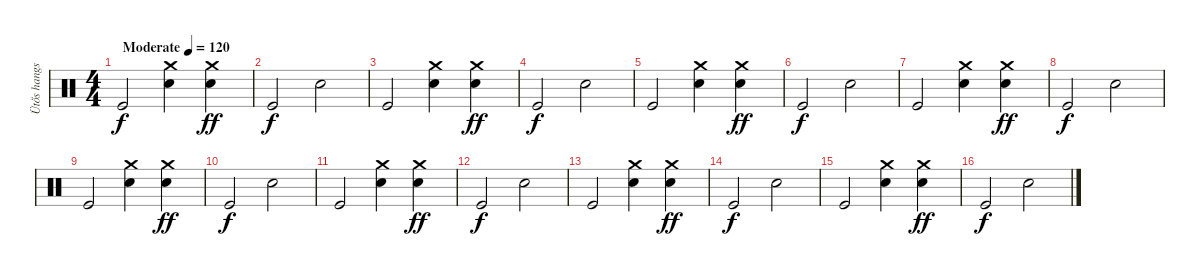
\track ("Ütős hangszer" "Ütős hangs") {instrument percussion}
\staff {score}
\articulation defaults
\ts (4 4)
\tempo (120 "Moderate")
\clef neutral
\ks c "Kick (hit)".2{dy f}
("Crash medium (hit)" "Snare (hit) 2").4 ("Crash medium (hit)" "Snare (hit) 2").4{dy ff} |
"Kick (hit)".2{dy f} "Snare (hit) 2".2 |
"Kick (hit)".2 ("Crash medium (hit)" "Snare (hit) 2").4 ("Crash medium (hit)" "Snare (hit) 2").4{dy ff} |
"Kick (hit)".2{dy f} "Snare (hit) 2".2 |
"Kick (hit)".2 ("Crash medium (hit)" "Snare (hit) 2").4 ("Crash medium (hit)" "Snare (hit) 2").4{dy ff} |
"Kick (hit)".2{dy f} "Snare (hit) 2".2 |
"Kick (hit)".2 ("Crash medium (hit)" "Snare (hit) 2").4 ("Crash medium (hit)" "Snare (hit) 2").4{dy ff} |
"Kick (hit)".2{dy f} "Snare (hit) 2".2 |
"Kick (hit)".2 ("Crash medium (hit)" "Snare (hit) 2").4 ("Crash medium (hit)" "Snare (hit) 2").4{dy ff} |
"Kick (hit)".2{dy f} "Snare (hit) 2".2 |
"Kick (hit)".2 ("Crash medium (hit)" "Snare (hit) 2").4 ("Crash medium (hit)" "Snare (hit) 2").4{dy ff} |
"Kick (hit)".2{dy f} "Snare (hit) 2".2 |
"Kick (hit)".2 ("Crash medium (hit)" "Snare (hit) 2").4 ("Crash medium (hit)" "Snare (hit) 2").4{dy ff} |
"Kick (hit)".2{dy f} "Snare (hit) 2".2 |
"Kick (hit)".2 ("Crash medium (hit)" "Snare (hit) 2").4 ("Crash medium (hit)" "Snare (hit) 2").4{dy ff} |
"Kick (hit)".2{dy f} "Snare (hit) 2".2
